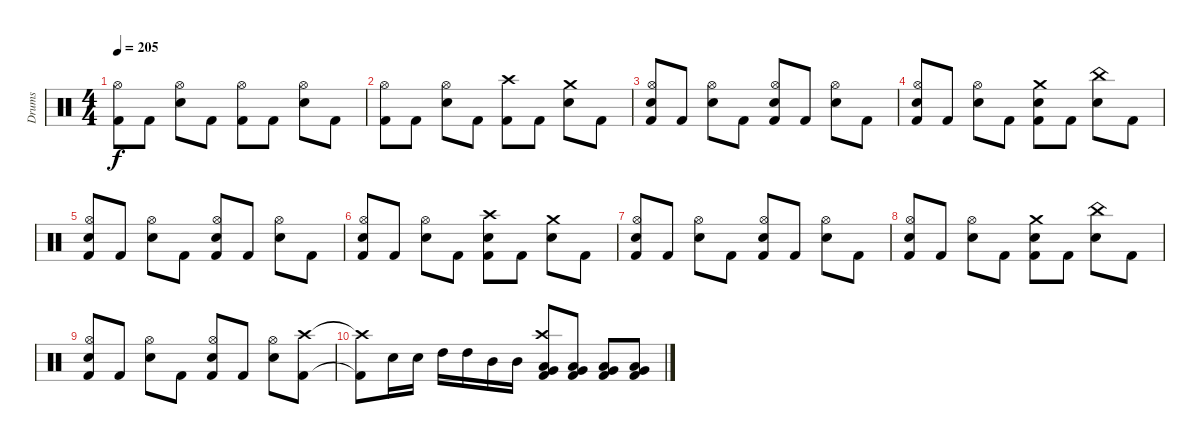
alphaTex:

\track ("Drums" "Drums") {instrument percussion}
\staff {score}
\articulation defaults
\ts (4 4)
\tempo 205
\clef neutral
\ks c
("Kick (hit) 2" "Hi-Hat (open)").8{dy f} "Kick (hit) 2".8 ("Snare (hit) 2" "Hi-Hat (open)").8 "Kick (hit) 2".8 ("Kick (hit) 2" "Hi-Hat (open)").8 "Kick (hit) 2".8 ("Snare (hit) 2" "Hi-Hat (open)").8 "Kick (hit) 2".8 |
("Kick (hit) 2" "Hi-Hat (open)").8 "Kick (hit) 2".8 ("Snare (hit) 2" "Hi-Hat (open)").8 "Kick (hit) 2".8 ("Kick (hit) 2" "Crash high (hit)").8 "Kick (hit) 2".8 ("Snare (hit) 2" "Crash medium (hit)").8 "Kick (hit) 2".8 |
("Kick (hit) 2" "Snare (hit) 2" "Hi-Hat (open)").8 "Kick (hit) 2".8 ("Snare (hit) 2" "Hi-Hat (open)").8 "Kick (hit) 2".8 ("Kick (hit) 2" "Snare (hit) 2" "Hi-Hat (open)").8 "Kick (hit) 2".8 ("Snare (hit) 2" "Hi-Hat (open)").8 "Kick (hit) 2".8 |
("Kick (hit) 2" "Snare (hit) 2" "Hi-Hat (open)").8 "Kick (hit) 2".8 ("Snare (hit) 2" "Hi-Hat (open)").8 "Kick (hit) 2".8 ("Kick (hit) 2" "Snare (hit) 2" "Crash medium (hit)").8 "Kick (hit) 2".8 ("Snare (hit) 2" "China (hit)").8 "Kick (hit) 2".8 |
("Kick (hit) 2" "Snare (hit) 2" "Hi-Hat (open)").8 "Kick (hit) 2".8 ("Snare (hit) 2" "Hi-Hat (open)").8 "Kick (hit) 2".8 ("Kick (hit) 2" "Snare (hit) 2" "Hi-Hat (open)").8 "Kick (hit) 2".8 ("Snare (hit) 2" "Hi-Hat (open)").8 "Kick (hit) 2".8 |
("Kick (hit) 2" "Snare (hit) 2" "Hi-Hat (open)").8 "Kick (hit) 2".8 ("Snare (hit) 2" "Hi-Hat (open)").8 "Kick (hit) 2".8 ("Kick (hit) 2" "Snare (hit) 2" "Crash high (hit)").8 "Kick (hit) 2".8 ("Snare (hit) 2" "Crash medium (hit)").8 "Kick (hit) 2".8 |
("Kick (hit) 2" "Snare (hit) 2" "Hi-Hat (open)").8 "Kick (hit) 2".8 ("Snare (hit) 2" "Hi-Hat (open)").8 "Kick (hit) 2".8 ("Kick (hit) 2" "Snare (hit) 2" "Hi-Hat (open)").8 "Kick (hit) 2".8 ("Snare (hit) 2" "Hi-Hat (open)").8 "Kick (hit) 2".8 |
("Kick (hit) 2" "Snare (hit) 2" "Hi-Hat (open)").8 "Kick (hit) 2".8 ("Snare (hit) 2" "Hi-Hat (open)").8 "Kick (hit) 2".8 ("Kick (hit) 2" "Snare (hit) 2" "Crash medium (hit)").8 "Kick (hit) 2".8 ("Snare (hit) 2" "China (hit)").8 "Kick (hit) 2".8 |
("Kick (hit) 2" "Snare (hit) 2" "Hi-Hat (open)").8 "Kick (hit) 2".8 ("Snare (hit) 2" "Hi-Hat (open)").8 "Kick (hit) 2".8 ("Kick (hit) 2" "Snare (hit) 2" "Hi-Hat (open)").8 "Kick (hit) 2".8 ("Snare (hit) 2" "Hi-Hat (open)").8 ("Crash high (hit)" "Kick (hit) 2").8 |
("Crash high (hit)"{t} "Kick (hit) 2"{t}).8 "Snare (hit) 2".16 "Snare (hit) 2".16 "High Tom (hit)".16 "High Tom (hit)".16 "Mid Tom (hit)".16 "Mid Tom (hit)".16 ("Crash high (hit)" "Low Tom (hit)" "Very Low Tom (hit)" "Kick (hit) 2").8 ("Low Tom (hit)" "Very Low Tom (hit)" "Kick (hit) 2").8 ("Low Tom (hit)" "Very Low Tom (hit)" "Kick (hit) 2").8 ("Low Tom (hit)" "Very Low Tom (hit)" "Kick (hit) 2").8
